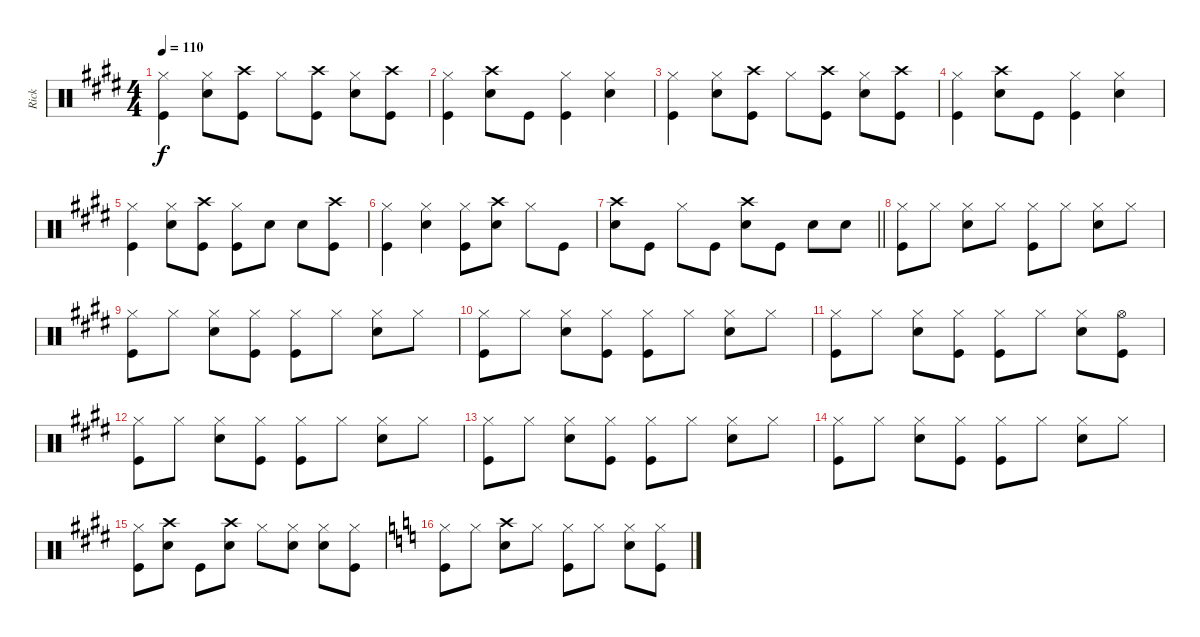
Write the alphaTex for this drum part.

\track ("Rick" "Rick") {instrument percussion}
\staff {score}
\articulation defaults
\ts (4 4)
\tempo 110
\clef neutral
\ks e
("Hi-Hat (closed)" "Kick (hit)").4{dy f} ("Hi-Hat (closed)" "Snare (hit) 2").8 ("Crash high (hit)" "Kick (hit)").8 "Hi-Hat (closed)".8 ("Crash high (hit)" "Kick (hit)").8 ("Hi-Hat (closed)" "Snare (hit) 2").8 ("Crash high (hit)" "Kick (hit)").8 |
("Hi-Hat (closed)" "Kick (hit)").4 ("Crash high (hit)" "Snare (hit) 2").8 "Kick (hit)".8 ("Hi-Hat (closed)" "Kick (hit)").4 ("Hi-Hat (closed)" "Snare (hit) 2").4 |
("Hi-Hat (closed)" "Kick (hit)").4 ("Hi-Hat (closed)" "Snare (hit) 2").8 ("Crash high (hit)" "Kick (hit)").8 "Hi-Hat (closed)".8 ("Crash high (hit)" "Kick (hit)").8 ("Hi-Hat (closed)" "Snare (hit) 2").8 ("Crash high (hit)" "Kick (hit)").8 |
("Hi-Hat (closed)" "Kick (hit)").4 ("Crash high (hit)" "Snare (hit) 2").8 "Kick (hit)".8 ("Hi-Hat (closed)" "Kick (hit)").4 ("Hi-Hat (closed)" "Snare (hit) 2").4 |
("Hi-Hat (closed)" "Kick (hit)").4 ("Hi-Hat (closed)" "Snare (hit) 2").8 ("Crash high (hit)" "Kick (hit)").8 ("Hi-Hat (closed)" "Kick (hit)").8 "Snare (hit) 2".8 "Snare (hit) 2".8 ("Crash high (hit)" "Kick (hit)").8 |
("Hi-Hat (closed)" "Kick (hit)").4 ("Hi-Hat (closed)" "Snare (hit) 2").4 ("Hi-Hat (closed)" "Kick (hit)").8 ("Crash high (hit)" "Snare (hit) 2").8 "Hi-Hat (closed)".8 "Kick (hit)".8 |
\barLineRight lightlight
("Crash high (hit)" "Snare (hit) 2").8 "Kick (hit)".8 "Hi-Hat (closed)".8 "Kick (hit)".8 ("Crash high (hit)" "Snare (hit) 2").8 "Kick (hit)".8 "Snare (hit) 2".8 "Snare (hit) 2".8 |
\ks c#minor
("Hi-Hat (closed)" "Kick (hit)").8 "Hi-Hat (closed)".8 ("Hi-Hat (closed)" "Snare (hit) 2").8 "Hi-Hat (closed)".8 ("Hi-Hat (closed)" "Kick (hit)").8 "Hi-Hat (closed)".8 ("Hi-Hat (closed)" "Snare (hit) 2").8 "Hi-Hat (closed)".8 |
("Hi-Hat (closed)" "Kick (hit)").8 "Hi-Hat (closed)".8 ("Hi-Hat (closed)" "Snare (hit) 2").8 ("Hi-Hat (closed)" "Kick (hit)").8 ("Hi-Hat (closed)" "Kick (hit)").8 "Hi-Hat (closed)".8 ("Hi-Hat (closed)" "Snare (hit) 2").8 "Hi-Hat (closed)".8 |
("Hi-Hat (closed)" "Kick (hit)").8 "Hi-Hat (closed)".8 ("Hi-Hat (closed)" "Snare (hit) 2").8 ("Hi-Hat (closed)" "Kick (hit)").8 ("Hi-Hat (closed)" "Kick (hit)").8 "Hi-Hat (closed)".8 ("Hi-Hat (closed)" "Snare (hit) 2").8 "Hi-Hat (closed)".8 |
("Hi-Hat (closed)" "Kick (hit)").8 "Hi-Hat (closed)".8 ("Hi-Hat (closed)" "Snare (hit) 2").8 ("Hi-Hat (closed)" "Kick (hit)").8 ("Hi-Hat (closed)" "Kick (hit)").8 "Hi-Hat (closed)".8 ("Hi-Hat (closed)" "Snare (hit) 2").8 ("Hi-Hat (open)" "Kick (hit)").8 |
("Hi-Hat (closed)" "Kick (hit)").8 "Hi-Hat (closed)".8 ("Hi-Hat (closed)" "Snare (hit) 2").8 ("Hi-Hat (closed)" "Kick (hit)").8 ("Hi-Hat (closed)" "Kick (hit)").8 "Hi-Hat (closed)".8 ("Hi-Hat (closed)" "Snare (hit) 2").8 "Hi-Hat (closed)".8 |
("Hi-Hat (closed)" "Kick (hit)").8 "Hi-Hat (closed)".8 ("Hi-Hat (closed)" "Snare (hit) 2").8 ("Hi-Hat (closed)" "Kick (hit)").8 ("Hi-Hat (closed)" "Kick (hit)").8 "Hi-Hat (closed)".8 ("Hi-Hat (closed)" "Snare (hit) 2").8 "Hi-Hat (closed)".8 |
("Hi-Hat (closed)" "Kick (hit)").8 "Hi-Hat (closed)".8 ("Hi-Hat (closed)" "Snare (hit) 2").8 ("Hi-Hat (closed)" "Kick (hit)").8 ("Hi-Hat (closed)" "Kick (hit)").8 "Hi-Hat (closed)".8 ("Hi-Hat (closed)" "Snare (hit) 2").8 "Hi-Hat (closed)".8 |
("Hi-Hat (closed)" "Kick (hit)").8 ("Crash high (hit)" "Snare (hit) 2").8 "Kick (hit)".8 ("Crash high (hit)" "Snare (hit) 2").8 "Hi-Hat (closed)".8 ("Hi-Hat (closed)" "Snare (hit) 2").8 ("Hi-Hat (closed)" "Snare (hit) 2").8 ("Hi-Hat (closed)" "Kick (hit)").8 |
\ks c
("Hi-Hat (closed)" "Kick (hit)").8 "Hi-Hat (closed)".8 ("Crash high (hit)" "Snare (hit) 2").8 "Hi-Hat (closed)".8 ("Hi-Hat (closed)" "Kick (hit)").8 "Hi-Hat (closed)".8 ("Hi-Hat (closed)" "Snare (hit) 2").8 ("Hi-Hat (closed)" "Kick (hit)").8
